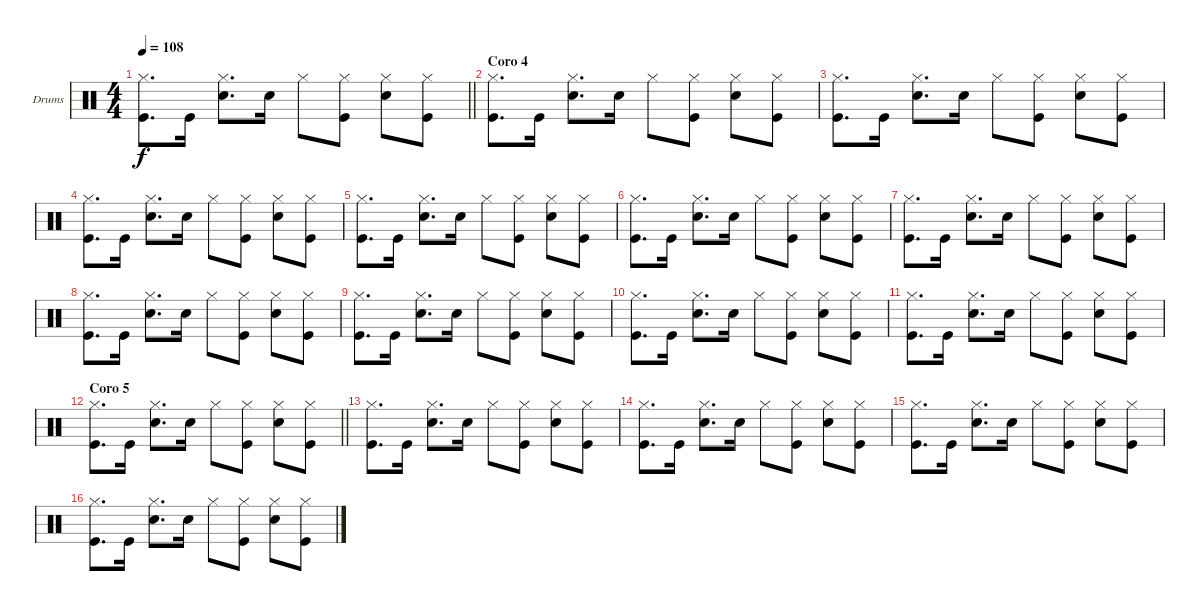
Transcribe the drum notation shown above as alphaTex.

\bracketExtendMode groupsimilarinstruments
\firstSystemTrackNameOrientation horizontal
\otherSystemsTrackNameOrientation horizontal
\track ("Drumkit" "Drums") {instrument percussion}
\staff {score}
\articulation defaults
\ts (4 4)
\tempo 108
\clef neutral
\barLineRight lightlight
\ks c
("Hi-Hat (closed)" "Kick (hit)").8{d dy f} "Kick (hit)".16 ("Hi-Hat (closed)" "Snare (hit) 2").8{d} "Snare (hit) 2".16 "Hi-Hat (closed)".8 ("Hi-Hat (closed)" "Kick (hit)").8 ("Hi-Hat (closed)" "Snare (hit) 2").8 ("Hi-Hat (closed)" "Kick (hit)").8 |
\section ("" "Coro 4")
("Hi-Hat (closed)" "Kick (hit)").8{d} "Kick (hit)".16 ("Hi-Hat (closed)" "Snare (hit) 2").8{d} "Snare (hit) 2".16 "Hi-Hat (closed)".8 ("Hi-Hat (closed)" "Kick (hit)").8 ("Hi-Hat (closed)" "Snare (hit) 2").8 ("Hi-Hat (closed)" "Kick (hit)").8 |
("Hi-Hat (closed)" "Kick (hit)").8{d} "Kick (hit)".16 ("Hi-Hat (closed)" "Snare (hit) 2").8{d} "Snare (hit) 2".16 "Hi-Hat (closed)".8 ("Hi-Hat (closed)" "Kick (hit)").8 ("Hi-Hat (closed)" "Snare (hit) 2").8 ("Hi-Hat (closed)" "Kick (hit)").8 |
("Hi-Hat (closed)" "Kick (hit)").8{d} "Kick (hit)".16 ("Hi-Hat (closed)" "Snare (hit) 2").8{d} "Snare (hit) 2".16 "Hi-Hat (closed)".8 ("Hi-Hat (closed)" "Kick (hit)").8 ("Hi-Hat (closed)" "Snare (hit) 2").8 ("Hi-Hat (closed)" "Kick (hit)").8 |
("Hi-Hat (closed)" "Kick (hit)").8{d} "Kick (hit)".16 ("Hi-Hat (closed)" "Snare (hit) 2").8{d} "Snare (hit) 2".16 "Hi-Hat (closed)".8 ("Hi-Hat (closed)" "Kick (hit)").8 ("Hi-Hat (closed)" "Snare (hit) 2").8 ("Hi-Hat (closed)" "Kick (hit)").8 |
("Hi-Hat (closed)" "Kick (hit)").8{d} "Kick (hit)".16 ("Hi-Hat (closed)" "Snare (hit) 2").8{d} "Snare (hit) 2".16 "Hi-Hat (closed)".8 ("Hi-Hat (closed)" "Kick (hit)").8 ("Hi-Hat (closed)" "Snare (hit) 2").8 ("Hi-Hat (closed)" "Kick (hit)").8 |
("Hi-Hat (closed)" "Kick (hit)").8{d} "Kick (hit)".16 ("Hi-Hat (closed)" "Snare (hit) 2").8{d} "Snare (hit) 2".16 "Hi-Hat (closed)".8 ("Hi-Hat (closed)" "Kick (hit)").8 ("Hi-Hat (closed)" "Snare (hit) 2").8 ("Hi-Hat (closed)" "Kick (hit)").8 |
("Hi-Hat (closed)" "Kick (hit)").8{d} "Kick (hit)".16 ("Hi-Hat (closed)" "Snare (hit) 2").8{d} "Snare (hit) 2".16 "Hi-Hat (closed)".8 ("Hi-Hat (closed)" "Kick (hit)").8 ("Hi-Hat (closed)" "Snare (hit) 2").8 ("Hi-Hat (closed)" "Kick (hit)").8 |
("Hi-Hat (closed)" "Kick (hit)").8{d} "Kick (hit)".16 ("Hi-Hat (closed)" "Snare (hit) 2").8{d} "Snare (hit) 2".16 "Hi-Hat (closed)".8 ("Hi-Hat (closed)" "Kick (hit)").8 ("Hi-Hat (closed)" "Snare (hit) 2").8 ("Hi-Hat (closed)" "Kick (hit)").8 |
("Hi-Hat (closed)" "Kick (hit)").8{d} "Kick (hit)".16 ("Hi-Hat (closed)" "Snare (hit) 2").8{d} "Snare (hit) 2".16 "Hi-Hat (closed)".8 ("Hi-Hat (closed)" "Kick (hit)").8 ("Hi-Hat (closed)" "Snare (hit) 2").8 ("Hi-Hat (closed)" "Kick (hit)").8 |
("Hi-Hat (closed)" "Kick (hit)").8{d} "Kick (hit)".16 ("Hi-Hat (closed)" "Snare (hit) 2").8{d} "Snare (hit) 2".16 "Hi-Hat (closed)".8 ("Hi-Hat (closed)" "Kick (hit)").8 ("Hi-Hat (closed)" "Snare (hit) 2").8 ("Hi-Hat (closed)" "Kick (hit)").8 |
\section ("" "Coro 5")
\barLineRight lightlight
("Hi-Hat (closed)" "Kick (hit)").8{d} "Kick (hit)".16 ("Hi-Hat (closed)" "Snare (hit) 2").8{d} "Snare (hit) 2".16 "Hi-Hat (closed)".8 ("Hi-Hat (closed)" "Kick (hit)").8 ("Hi-Hat (closed)" "Snare (hit) 2").8 ("Hi-Hat (closed)" "Kick (hit)").8 |
("Hi-Hat (closed)" "Kick (hit)").8{d} "Kick (hit)".16 ("Hi-Hat (closed)" "Snare (hit) 2").8{d} "Snare (hit) 2".16 "Hi-Hat (closed)".8 ("Hi-Hat (closed)" "Kick (hit)").8 ("Hi-Hat (closed)" "Snare (hit) 2").8 ("Hi-Hat (closed)" "Kick (hit)").8 |
("Hi-Hat (closed)" "Kick (hit)").8{d} "Kick (hit)".16 ("Hi-Hat (closed)" "Snare (hit) 2").8{d} "Snare (hit) 2".16 "Hi-Hat (closed)".8 ("Hi-Hat (closed)" "Kick (hit)").8 ("Hi-Hat (closed)" "Snare (hit) 2").8 ("Hi-Hat (closed)" "Kick (hit)").8 |
("Hi-Hat (closed)" "Kick (hit)").8{d} "Kick (hit)".16 ("Hi-Hat (closed)" "Snare (hit) 2").8{d} "Snare (hit) 2".16 "Hi-Hat (closed)".8 ("Hi-Hat (closed)" "Kick (hit)").8 ("Hi-Hat (closed)" "Snare (hit) 2").8 ("Hi-Hat (closed)" "Kick (hit)").8 |
("Hi-Hat (closed)" "Kick (hit)").8{d} "Kick (hit)".16 ("Hi-Hat (closed)" "Snare (hit) 2").8{d} "Snare (hit) 2".16 "Hi-Hat (closed)".8 ("Hi-Hat (closed)" "Kick (hit)").8 ("Hi-Hat (closed)" "Snare (hit) 2").8 ("Hi-Hat (closed)" "Kick (hit)").8
